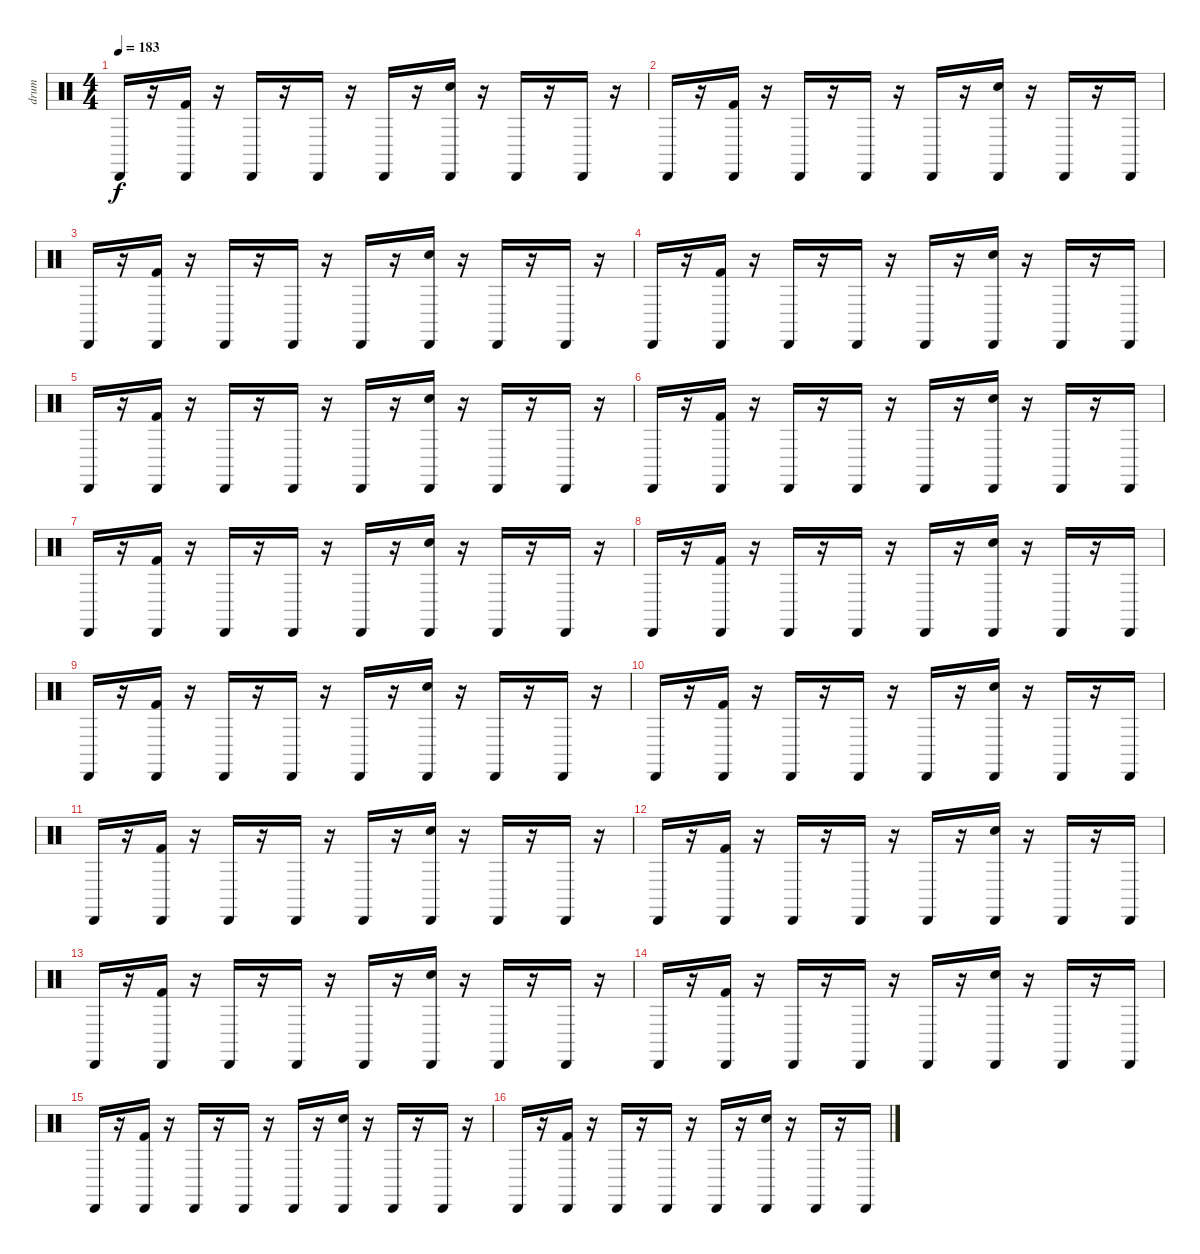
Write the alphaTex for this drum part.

\track ("drum" "drum") {instrument percussion}
\staff {score}
\articulation defaults
\ts (4 4)
\tempo 183
\clef neutral
\ks c "Cabasa (hit)".16{dy f}
r.16 ("Cabasa (hit)" "Kick (hit) 2").16 r.16 "Cabasa (hit)".16 r.16 "Cabasa (hit)".16 r.16 "Cabasa (hit)".16 r.16 ("Cabasa (hit)" "Snare (hit) 2").16 r.16 "Cabasa (hit)".16 r.16 "Cabasa (hit)".16 r.16 |
"Cabasa (hit)".16 r.16 ("Cabasa (hit)" "Kick (hit) 2").16 r.16 "Cabasa (hit)".16 r.16 "Cabasa (hit)".16 r.16 "Cabasa (hit)".16 r.16 ("Cabasa (hit)" "Snare (hit) 2").16 r.16 "Cabasa (hit)".16 r.16 "Cabasa (hit)".16 |
"Cabasa (hit)".16 r.16 ("Cabasa (hit)" "Kick (hit) 2").16 r.16 "Cabasa (hit)".16 r.16 "Cabasa (hit)".16 r.16 "Cabasa (hit)".16 r.16 ("Cabasa (hit)" "Snare (hit) 2").16 r.16 "Cabasa (hit)".16 r.16 "Cabasa (hit)".16 r.16 |
"Cabasa (hit)".16 r.16 ("Cabasa (hit)" "Kick (hit) 2").16 r.16 "Cabasa (hit)".16 r.16 "Cabasa (hit)".16 r.16 "Cabasa (hit)".16 r.16 ("Cabasa (hit)" "Snare (hit) 2").16 r.16 "Cabasa (hit)".16 r.16 "Cabasa (hit)".16 |
"Cabasa (hit)".16 r.16 ("Cabasa (hit)" "Kick (hit) 2").16 r.16 "Cabasa (hit)".16 r.16 "Cabasa (hit)".16 r.16 "Cabasa (hit)".16 r.16 ("Cabasa (hit)" "Snare (hit) 2").16 r.16 "Cabasa (hit)".16 r.16 "Cabasa (hit)".16 r.16 |
"Cabasa (hit)".16 r.16 ("Cabasa (hit)" "Kick (hit) 2").16 r.16 "Cabasa (hit)".16 r.16 "Cabasa (hit)".16 r.16 "Cabasa (hit)".16 r.16 ("Cabasa (hit)" "Snare (hit) 2").16 r.16 "Cabasa (hit)".16 r.16 "Cabasa (hit)".16 |
"Cabasa (hit)".16 r.16 ("Cabasa (hit)" "Kick (hit) 2").16 r.16 "Cabasa (hit)".16 r.16 "Cabasa (hit)".16 r.16 "Cabasa (hit)".16 r.16 ("Cabasa (hit)" "Snare (hit) 2").16 r.16 "Cabasa (hit)".16 r.16 "Cabasa (hit)".16 r.16 |
"Cabasa (hit)".16 r.16 ("Cabasa (hit)" "Kick (hit) 2").16 r.16 "Cabasa (hit)".16 r.16 "Cabasa (hit)".16 r.16 "Cabasa (hit)".16 r.16 ("Cabasa (hit)" "Snare (hit) 2").16 r.16 "Cabasa (hit)".16 r.16 "Cabasa (hit)".16 |
"Cabasa (hit)".16 r.16 ("Cabasa (hit)" "Kick (hit) 2").16 r.16 "Cabasa (hit)".16 r.16 "Cabasa (hit)".16 r.16 "Cabasa (hit)".16 r.16 ("Cabasa (hit)" "Snare (hit) 2").16 r.16 "Cabasa (hit)".16 r.16 "Cabasa (hit)".16 r.16 |
"Cabasa (hit)".16 r.16 ("Cabasa (hit)" "Kick (hit) 2").16 r.16 "Cabasa (hit)".16 r.16 "Cabasa (hit)".16 r.16 "Cabasa (hit)".16 r.16 ("Cabasa (hit)" "Snare (hit) 2").16 r.16 "Cabasa (hit)".16 r.16 "Cabasa (hit)".16 |
"Cabasa (hit)".16 r.16 ("Cabasa (hit)" "Kick (hit) 2").16 r.16 "Cabasa (hit)".16 r.16 "Cabasa (hit)".16 r.16 "Cabasa (hit)".16 r.16 ("Cabasa (hit)" "Snare (hit) 2").16 r.16 "Cabasa (hit)".16 r.16 "Cabasa (hit)".16 r.16 |
"Cabasa (hit)".16 r.16 ("Cabasa (hit)" "Kick (hit) 2").16 r.16 "Cabasa (hit)".16 r.16 "Cabasa (hit)".16 r.16 "Cabasa (hit)".16 r.16 ("Cabasa (hit)" "Snare (hit) 2").16 r.16 "Cabasa (hit)".16 r.16 "Cabasa (hit)".16 |
"Cabasa (hit)".16 r.16 ("Cabasa (hit)" "Kick (hit) 2").16 r.16 "Cabasa (hit)".16 r.16 "Cabasa (hit)".16 r.16 "Cabasa (hit)".16 r.16 ("Cabasa (hit)" "Snare (hit) 2").16 r.16 "Cabasa (hit)".16 r.16 "Cabasa (hit)".16 r.16 |
"Cabasa (hit)".16 r.16 ("Cabasa (hit)" "Kick (hit) 2").16 r.16 "Cabasa (hit)".16 r.16 "Cabasa (hit)".16 r.16 "Cabasa (hit)".16 r.16 ("Cabasa (hit)" "Snare (hit) 2").16 r.16 "Cabasa (hit)".16 r.16 "Cabasa (hit)".16 |
"Cabasa (hit)".16 r.16 ("Cabasa (hit)" "Kick (hit) 2").16 r.16 "Cabasa (hit)".16 r.16 "Cabasa (hit)".16 r.16 "Cabasa (hit)".16 r.16 ("Cabasa (hit)" "Snare (hit) 2").16 r.16 "Cabasa (hit)".16 r.16 "Cabasa (hit)".16 r.16 |
"Cabasa (hit)".16 r.16 ("Cabasa (hit)" "Kick (hit) 2").16 r.16 "Cabasa (hit)".16 r.16 "Cabasa (hit)".16 r.16 "Cabasa (hit)".16 r.16 ("Cabasa (hit)" "Snare (hit) 2").16 r.16 "Cabasa (hit)".16 r.16 "Cabasa (hit)".16
